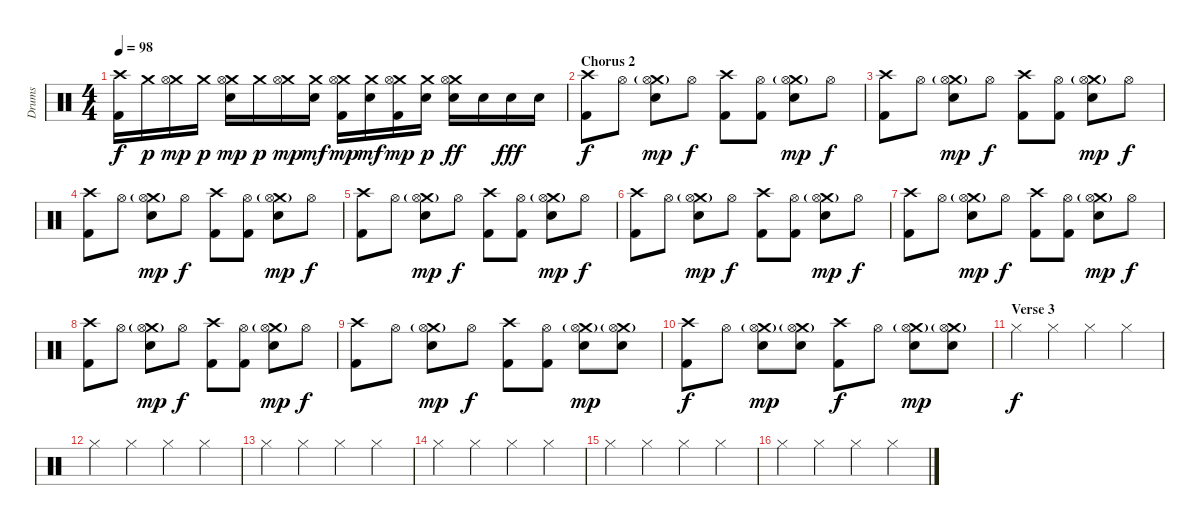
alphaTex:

\track ("Drums" "Drums") {instrument percussion}
\staff {score}
\articulation defaults
\ts (4 4)
\tempo 98
\clef neutral
\ks c
("Crash high (hit)" "Kick (hit) 2").16{dy f} "Crash medium (hit)".16{dy p} ("Crash medium (hit)" "Hi-Hat (open)").16{dy mp} "Crash medium (hit)".16{dy p} ("Crash medium (hit)" "Hi-Hat (open)" "Snare (hit) 2").16{dy mp} "Crash medium (hit)".16{dy p} ("Crash medium (hit)" "Hi-Hat (open)").16{dy mp} ("Crash medium (hit)" "Snare (hit) 2").16{dy mf} ("Crash medium (hit)" "Hi-Hat (open)" "Kick (hit) 2").16{dy mp} ("Crash medium (hit)" "Snare (hit) 2").16{dy mf} ("Crash medium (hit)" "Hi-Hat (open)" "Kick (hit) 2").16{dy mp} ("Crash medium (hit)" "Snare (hit) 2").16{dy p} ("Crash medium (hit)" "Hi-Hat (open)" "Snare (hit) 2").16{dy ff} "Snare (hit) 2".16 "Snare (hit) 2".16{dy fff} "Snare (hit) 2".16 |
\section ("" "Chorus 2")
("Crash high (hit)" "Kick (hit) 2").8{dy f} "Hi-Hat (open)".8 ("Crash medium (hit)"{g} "Hi-Hat (open)" "Snare (hit) 2").8{dy mp} "Hi-Hat (open)".8{dy f} ("Crash high (hit)" "Kick (hit) 2").8 ("Hi-Hat (open)" "Kick (hit) 2").8 ("Crash medium (hit)"{g} "Hi-Hat (open)" "Snare (hit) 2").8{dy mp} "Hi-Hat (open)".8{dy f} |
("Crash high (hit)" "Kick (hit) 2").8 "Hi-Hat (open)".8 ("Crash medium (hit)"{g} "Hi-Hat (open)" "Snare (hit) 2").8{dy mp} "Hi-Hat (open)".8{dy f} ("Crash high (hit)" "Kick (hit) 2").8 ("Hi-Hat (open)" "Kick (hit) 2").8 ("Crash medium (hit)"{g} "Hi-Hat (open)" "Snare (hit) 2").8{dy mp} "Hi-Hat (open)".8{dy f} |
("Crash high (hit)" "Kick (hit) 2").8 "Hi-Hat (open)".8 ("Crash medium (hit)"{g} "Hi-Hat (open)" "Snare (hit) 2").8{dy mp} "Hi-Hat (open)".8{dy f} ("Crash high (hit)" "Kick (hit) 2").8 ("Hi-Hat (open)" "Kick (hit) 2").8 ("Crash medium (hit)"{g} "Hi-Hat (open)" "Snare (hit) 2").8{dy mp} "Hi-Hat (open)".8{dy f} |
("Crash high (hit)" "Kick (hit) 2").8 "Hi-Hat (open)".8 ("Crash medium (hit)"{g} "Hi-Hat (open)" "Snare (hit) 2").8{dy mp} "Hi-Hat (open)".8{dy f} ("Crash high (hit)" "Kick (hit) 2").8 ("Hi-Hat (open)" "Kick (hit) 2").8 ("Crash medium (hit)"{g} "Hi-Hat (open)" "Snare (hit) 2").8{dy mp} "Hi-Hat (open)".8{dy f} |
("Crash high (hit)" "Kick (hit) 2").8 "Hi-Hat (open)".8 ("Crash medium (hit)"{g} "Hi-Hat (open)" "Snare (hit) 2").8{dy mp} "Hi-Hat (open)".8{dy f} ("Crash high (hit)" "Kick (hit) 2").8 ("Hi-Hat (open)" "Kick (hit) 2").8 ("Crash medium (hit)"{g} "Hi-Hat (open)" "Snare (hit) 2").8{dy mp} "Hi-Hat (open)".8{dy f} |
("Crash high (hit)" "Kick (hit) 2").8 "Hi-Hat (open)".8 ("Crash medium (hit)"{g} "Hi-Hat (open)" "Snare (hit) 2").8{dy mp} "Hi-Hat (open)".8{dy f} ("Crash high (hit)" "Kick (hit) 2").8 ("Hi-Hat (open)" "Kick (hit) 2").8 ("Crash medium (hit)"{g} "Hi-Hat (open)" "Snare (hit) 2").8{dy mp} "Hi-Hat (open)".8{dy f} |
("Crash high (hit)" "Kick (hit) 2").8 "Hi-Hat (open)".8 ("Crash medium (hit)"{g} "Hi-Hat (open)" "Snare (hit) 2").8{dy mp} "Hi-Hat (open)".8{dy f} ("Crash high (hit)" "Kick (hit) 2").8 ("Hi-Hat (open)" "Kick (hit) 2").8 ("Crash medium (hit)"{g} "Hi-Hat (open)" "Snare (hit) 2").8{dy mp} "Hi-Hat (open)".8{dy f} |
("Crash high (hit)" "Kick (hit) 2").8 "Hi-Hat (open)".8 ("Crash medium (hit)"{g} "Hi-Hat (open)" "Snare (hit) 2").8{dy mp} "Hi-Hat (open)".8{dy f} ("Crash high (hit)" "Kick (hit) 2").8 ("Hi-Hat (open)" "Kick (hit) 2").8 ("Crash medium (hit)"{g} "Hi-Hat (open)" "Snare (hit) 2").8{dy mp} ("Crash medium (hit)"{g} "Hi-Hat (open)" "Snare (hit) 2").8 |
("Crash high (hit)" "Kick (hit) 2").8{dy f} "Hi-Hat (open)".8 ("Crash medium (hit)"{g} "Hi-Hat (open)" "Snare (hit) 2").8{dy mp} ("Crash medium (hit)"{g} "Hi-Hat (open)" "Snare (hit) 2").8 ("Crash high (hit)" "Kick (hit) 2").8{dy f} "Hi-Hat (open)".8 ("Crash medium (hit)"{g} "Hi-Hat (open)" "Snare (hit) 2").8{dy mp} ("Crash medium (hit)"{g} "Hi-Hat (open)" "Snare (hit) 2").8 |
\section ("" "Verse 3")
"Hi-Hat (closed)".4{dy f} "Hi-Hat (closed)".4 "Hi-Hat (closed)".4 "Hi-Hat (closed)".4 |
"Hi-Hat (closed)".4 "Hi-Hat (closed)".4 "Hi-Hat (closed)".4 "Hi-Hat (closed)".4 |
"Hi-Hat (closed)".4 "Hi-Hat (closed)".4 "Hi-Hat (closed)".4 "Hi-Hat (closed)".4 |
"Hi-Hat (closed)".4 "Hi-Hat (closed)".4 "Hi-Hat (closed)".4 "Hi-Hat (closed)".4 |
"Hi-Hat (closed)".4 "Hi-Hat (closed)".4 "Hi-Hat (closed)".4 "Hi-Hat (closed)".4 |
"Hi-Hat (closed)".4 "Hi-Hat (closed)".4 "Hi-Hat (closed)".4 "Hi-Hat (closed)".4
